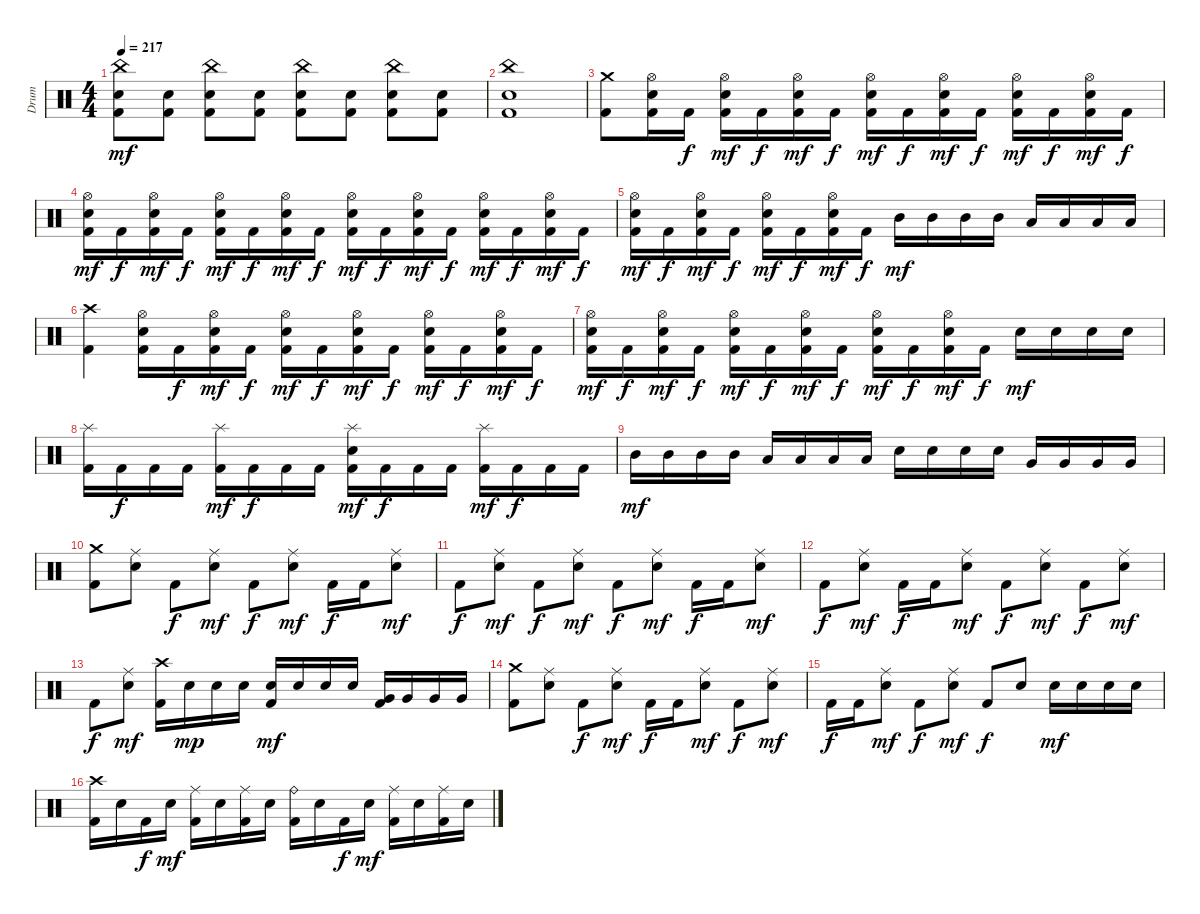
\track ("Drum" "Drum") {instrument percussion}
\staff {score}
\articulation defaults
\ts (4 4)
\tempo 217
\clef neutral
\ks c
("China (hit)" "Electric Snare (hit)" "Kick (hit) 2").8{dy mf} ("Electric Snare (hit)" "Kick (hit) 2").8 ("China (hit)" "Electric Snare (hit)" "Kick (hit) 2").8 ("Electric Snare (hit)" "Kick (hit) 2").8 ("China (hit)" "Electric Snare (hit)" "Kick (hit) 2").8 ("Electric Snare (hit)" "Kick (hit) 2").8 ("China (hit)" "Electric Snare (hit)" "Kick (hit) 2").8 ("Electric Snare (hit)" "Kick (hit) 2").8 |
("China (hit)" "Electric Snare (hit)" "Kick (hit) 2").1 |
("Crash medium (hit)" "Kick (hit) 2").8 ("Hi-Hat (open)" "Electric Snare (hit)" "Kick (hit) 2").16 "Kick (hit) 2".16{dy f} ("Hi-Hat (open)" "Electric Snare (hit)" "Kick (hit) 2").16{dy mf} "Kick (hit) 2".16{dy f} ("Hi-Hat (open)" "Electric Snare (hit)" "Kick (hit) 2").16{dy mf} "Kick (hit) 2".16{dy f} ("Hi-Hat (open)" "Electric Snare (hit)" "Kick (hit) 2").16{dy mf} "Kick (hit) 2".16{dy f} ("Hi-Hat (open)" "Electric Snare (hit)" "Kick (hit) 2").16{dy mf} "Kick (hit) 2".16{dy f} ("Hi-Hat (open)" "Electric Snare (hit)" "Kick (hit) 2").16{dy mf} "Kick (hit) 2".16{dy f} ("Hi-Hat (open)" "Electric Snare (hit)" "Kick (hit) 2").16{dy mf} "Kick (hit) 2".16{dy f} |
("Hi-Hat (open)" "Electric Snare (hit)" "Kick (hit) 2").16{dy mf} "Kick (hit) 2".16{dy f} ("Hi-Hat (open)" "Electric Snare (hit)" "Kick (hit) 2").16{dy mf} "Kick (hit) 2".16{dy f} ("Hi-Hat (open)" "Electric Snare (hit)" "Kick (hit) 2").16{dy mf} "Kick (hit) 2".16{dy f} ("Hi-Hat (open)" "Electric Snare (hit)" "Kick (hit) 2").16{dy mf} "Kick (hit) 2".16{dy f} ("Hi-Hat (open)" "Electric Snare (hit)" "Kick (hit) 2").16{dy mf} "Kick (hit) 2".16{dy f} ("Hi-Hat (open)" "Electric Snare (hit)" "Kick (hit) 2").16{dy mf} "Kick (hit) 2".16{dy f} ("Hi-Hat (open)" "Electric Snare (hit)" "Kick (hit) 2").16{dy mf} "Kick (hit) 2".16{dy f} ("Hi-Hat (open)" "Electric Snare (hit)" "Kick (hit) 2").16{dy mf} "Kick (hit) 2".16{dy f} |
("Hi-Hat (open)" "Electric Snare (hit)" "Kick (hit) 2").16{dy mf} "Kick (hit) 2".16{dy f} ("Hi-Hat (open)" "Electric Snare (hit)" "Kick (hit) 2").16{dy mf} "Kick (hit) 2".16{dy f} ("Hi-Hat (open)" "Electric Snare (hit)" "Kick (hit) 2").16{dy mf} "Kick (hit) 2".16{dy f} ("Hi-Hat (open)" "Electric Snare (hit)" "Kick (hit) 2").16{dy mf} "Kick (hit) 2".16{dy f} "Mid Tom (hit)".16{dy mf} "Mid Tom (hit)".16 "Mid Tom (hit)".16 "Mid Tom (hit)".16 "Low Tom (hit)".16 "Low Tom (hit)".16 "Low Tom (hit)".16 "Low Tom (hit)".16 |
("Crash high (hit)" "Kick (hit) 2").4 ("Hi-Hat (open)" "Electric Snare (hit)" "Kick (hit) 2").16 "Kick (hit) 2".16{dy f} ("Hi-Hat (open)" "Electric Snare (hit)" "Kick (hit) 2").16{dy mf} "Kick (hit) 2".16{dy f} ("Hi-Hat (open)" "Electric Snare (hit)" "Kick (hit) 2").16{dy mf} "Kick (hit) 2".16{dy f} ("Hi-Hat (open)" "Electric Snare (hit)" "Kick (hit) 2").16{dy mf} "Kick (hit) 2".16{dy f} ("Hi-Hat (open)" "Electric Snare (hit)" "Kick (hit) 2").16{dy mf} "Kick (hit) 2".16{dy f} ("Hi-Hat (open)" "Electric Snare (hit)" "Kick (hit) 2").16{dy mf} "Kick (hit) 2".16{dy f} |
("Hi-Hat (open)" "Electric Snare (hit)" "Kick (hit) 2").16{dy mf} "Kick (hit) 2".16{dy f} ("Hi-Hat (open)" "Electric Snare (hit)" "Kick (hit) 2").16{dy mf} "Kick (hit) 2".16{dy f} ("Hi-Hat (open)" "Electric Snare (hit)" "Kick (hit) 2").16{dy mf} "Kick (hit) 2".16{dy f} ("Hi-Hat (open)" "Electric Snare (hit)" "Kick (hit) 2").16{dy mf} "Kick (hit) 2".16{dy f} ("Hi-Hat (open)" "Electric Snare (hit)" "Kick (hit) 2").16{dy mf} "Kick (hit) 2".16{dy f} ("Hi-Hat (open)" "Electric Snare (hit)" "Kick (hit) 2").16{dy mf} "Kick (hit) 2".16{dy f} "Electric Snare (hit)".16{dy mf} "Electric Snare (hit)".16 "Electric Snare (hit)".16 "Electric Snare (hit)".16 |
("Splash (hit)" "Kick (hit) 2").16 "Kick (hit) 2".16{dy f} "Kick (hit) 2".16 "Kick (hit) 2".16 ("Splash (hit)" "Kick (hit) 2").16{dy mf} "Kick (hit) 2".16{dy f} "Kick (hit) 2".16 "Kick (hit) 2".16 ("Splash (hit)" "Electric Snare (hit)" "Kick (hit) 2").16{dy mf} "Kick (hit) 2".16{dy f} "Kick (hit) 2".16 "Kick (hit) 2".16 ("Splash (hit)" "Kick (hit) 2").16{dy mf} "Kick (hit) 2".16{dy f} "Kick (hit) 2".16 "Kick (hit) 2".16 |
"Mid Tom (hit)".16{dy mf} "Mid Tom (hit)".16 "Mid Tom (hit)".16 "Mid Tom (hit)".16 "Low Tom (hit)".16 "Low Tom (hit)".16 "Low Tom (hit)".16 "Low Tom (hit)".16 "Electric Snare (hit)".16 "Electric Snare (hit)".16 "Electric Snare (hit)".16 "Electric Snare (hit)".16 "Very Low Tom (hit)".16 "Very Low Tom (hit)".16 "Very Low Tom (hit)".16 "Very Low Tom (hit)".16 |
("Crash medium (hit)" "Kick (hit) 2").8 ("Ride (middle)" "Electric Snare (hit)").8 "Kick (hit) 2".8{dy f} ("Ride (middle)" "Electric Snare (hit)").8{dy mf} "Kick (hit) 2".8{dy f} ("Ride (middle)" "Electric Snare (hit)").8{dy mf} "Kick (hit) 2".16{dy f} "Kick (hit) 2".16 ("Ride (middle)" "Electric Snare (hit)").8{dy mf} |
"Kick (hit) 2".8{dy f} ("Ride (middle)" "Electric Snare (hit)").8{dy mf} "Kick (hit) 2".8{dy f} ("Ride (middle)" "Electric Snare (hit)").8{dy mf} "Kick (hit) 2".8{dy f} ("Ride (middle)" "Electric Snare (hit)").8{dy mf} "Kick (hit) 2".16{dy f} "Kick (hit) 2".16 ("Ride (middle)" "Electric Snare (hit)").8{dy mf} |
"Kick (hit) 2".8{dy f} ("Ride (middle)" "Electric Snare (hit)").8{dy mf} "Kick (hit) 2".16{dy f} "Kick (hit) 2".16 ("Ride (middle)" "Electric Snare (hit)").8{dy mf} "Kick (hit) 2".8{dy f} ("Ride (middle)" "Electric Snare (hit)").8{dy mf} "Kick (hit) 2".8{dy f} ("Ride (middle)" "Electric Snare (hit)").8{dy mf} |
"Kick (hit) 2".8{dy f} ("Ride (middle)" "Electric Snare (hit)").8{dy mf} ("Crash high (hit)" "Kick (hit) 2").16 "Electric Snare (hit)".16{dy mp} "Electric Snare (hit)".16 "Electric Snare (hit)".16 ("Electric Snare (hit)" "Kick (hit) 2").16{dy mf} "Electric Snare (hit)".16 "Electric Snare (hit)".16 "Electric Snare (hit)".16 ("Very Low Tom (hit)" "Kick (hit) 2").16 "Very Low Tom (hit)".16 "Very Low Tom (hit)".16 "Very Low Tom (hit)".16 |
("Crash medium (hit)" "Kick (hit) 2").8 ("Ride (middle)" "Electric Snare (hit)").8 "Kick (hit) 2".8{dy f} ("Ride (middle)" "Electric Snare (hit)").8{dy mf} "Kick (hit) 2".16{dy f} "Kick (hit) 2".16 ("Ride (middle)" "Electric Snare (hit)").8{dy mf} "Kick (hit) 2".8{dy f} ("Ride (middle)" "Electric Snare (hit)").8{dy mf} |
"Kick (hit) 2".16{dy f} "Kick (hit) 2".16 ("Ride (middle)" "Electric Snare (hit)").8{dy mf} "Kick (hit) 2".8{dy f} ("Ride (middle)" "Electric Snare (hit)").8{dy mf} "Kick (hit) 2".8{dy f} "Electric Snare (hit)".8 "Electric Snare (hit)".16{dy mf} "Electric Snare (hit)".16 "Electric Snare (hit)".16 "Electric Snare (hit)".16 |
("Crash high (hit)" "Kick (hit) 2").16 "Electric Snare (hit)".16 "Kick (hit) 2".16{dy f} "Electric Snare (hit)".16{dy mf} ("Ride (middle)" "Kick (hit) 2").16 "Electric Snare (hit)".16 ("Ride (middle)" "Kick (hit) 2").16 "Electric Snare (hit)".16 ("Ride (bell)" "Kick (hit) 2").16 "Electric Snare (hit)".16 "Kick (hit) 2".16{dy f} "Electric Snare (hit)".16{dy mf} ("Ride (middle)" "Kick (hit) 2").16 "Electric Snare (hit)".16 ("Ride (middle)" "Kick (hit) 2").16 "Electric Snare (hit)".16
